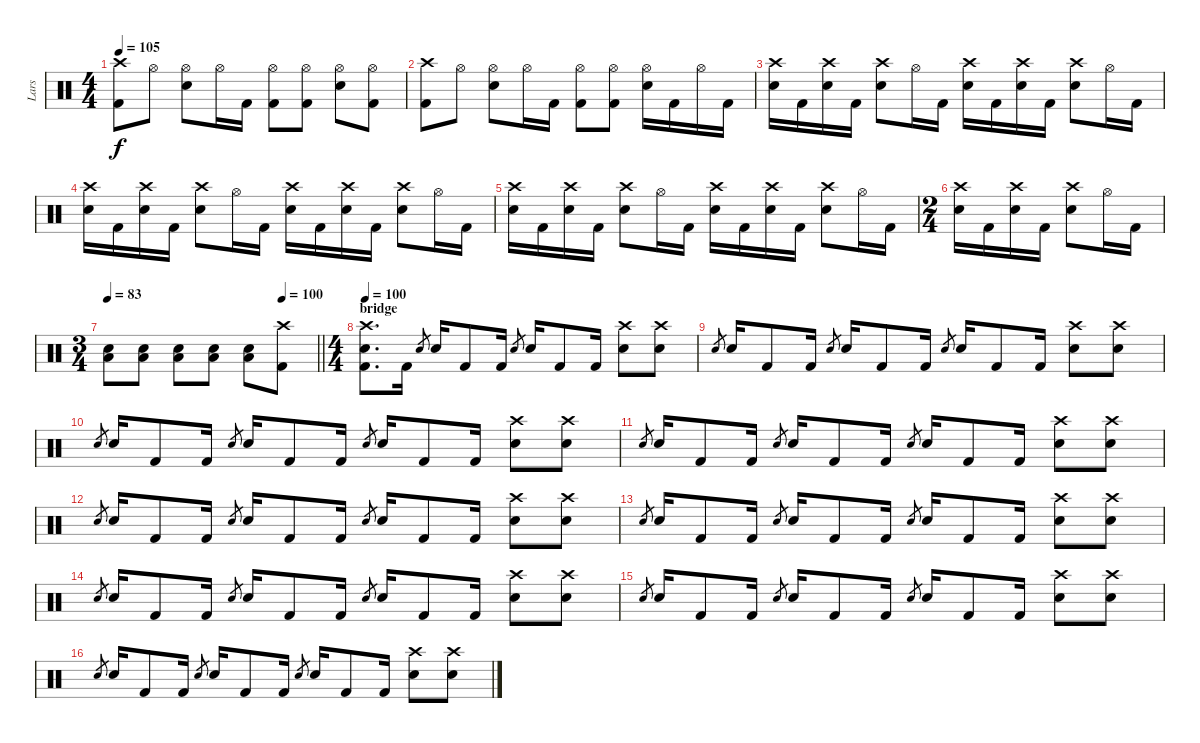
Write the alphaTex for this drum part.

\track ("Lars" "Lars") {instrument percussion}
\staff {score}
\articulation defaults
\ts (4 4)
\tempo 105
\clef neutral
\ks c
("Crash high (hit)" "Kick (hit) 2").8{dy f} "Hi-Hat (open)".8 ("Hi-Hat (open)" "Electric Snare (hit)").8 "Hi-Hat (open)".16 "Kick (hit) 2".16 ("Hi-Hat (open)" "Kick (hit) 2").8 ("Hi-Hat (open)" "Kick (hit) 2").8 ("Hi-Hat (open)" "Electric Snare (hit)").8 ("Hi-Hat (open)" "Kick (hit) 2").8 |
("Crash high (hit)" "Kick (hit) 2").8 "Hi-Hat (open)".8 ("Hi-Hat (open)" "Electric Snare (hit)").8 "Hi-Hat (open)".16 "Kick (hit) 2".16 ("Hi-Hat (open)" "Kick (hit) 2").8 ("Hi-Hat (open)" "Kick (hit) 2").8 ("Hi-Hat (open)" "Electric Snare (hit)").16 "Kick (hit) 2".16 "Hi-Hat (open)".16 "Kick (hit) 2".16 |
("Crash high (hit)" "Electric Snare (hit)").16 "Kick (hit) 2".16 ("Crash high (hit)" "Electric Snare (hit)").16 "Kick (hit) 2".16 ("Crash high (hit)" "Electric Snare (hit)").8 "Hi-Hat (open)".16 "Kick (hit) 2".16 ("Crash high (hit)" "Electric Snare (hit)").16 "Kick (hit) 2".16 ("Crash high (hit)" "Electric Snare (hit)").16 "Kick (hit) 2".16 ("Crash high (hit)" "Electric Snare (hit)").8 "Hi-Hat (open)".16 "Kick (hit) 2".16 |
("Crash high (hit)" "Electric Snare (hit)").16 "Kick (hit) 2".16 ("Crash high (hit)" "Electric Snare (hit)").16 "Kick (hit) 2".16 ("Crash high (hit)" "Electric Snare (hit)").8 "Hi-Hat (open)".16 "Kick (hit) 2".16 ("Crash high (hit)" "Electric Snare (hit)").16 "Kick (hit) 2".16 ("Crash high (hit)" "Electric Snare (hit)").16 "Kick (hit) 2".16 ("Crash high (hit)" "Electric Snare (hit)").8 "Hi-Hat (open)".16 "Kick (hit) 2".16 |
("Crash high (hit)" "Electric Snare (hit)").16 "Kick (hit) 2".16 ("Crash high (hit)" "Electric Snare (hit)").16 "Kick (hit) 2".16 ("Crash high (hit)" "Electric Snare (hit)").8 "Hi-Hat (open)".16 "Kick (hit) 2".16 ("Crash high (hit)" "Electric Snare (hit)").16 "Kick (hit) 2".16 ("Crash high (hit)" "Electric Snare (hit)").16 "Kick (hit) 2".16 ("Crash high (hit)" "Electric Snare (hit)").8 "Hi-Hat (open)".16 "Kick (hit) 2".16 |
\ts (2 4)
("Crash high (hit)" "Electric Snare (hit)").16 "Kick (hit) 2".16 ("Crash high (hit)" "Electric Snare (hit)").16 "Kick (hit) 2".16 ("Crash high (hit)" "Electric Snare (hit)").8 "Hi-Hat (open)".16 "Kick (hit) 2".16 |
\ts (3 4)
\tempo 83
\tempo (100 0.8333333333333334)
\barLineRight lightlight
("Low Floor Tom (hit)" "Electric Snare (hit)").8 ("Low Floor Tom (hit)" "Electric Snare (hit)").8 ("Low Floor Tom (hit)" "Electric Snare (hit)").8 ("Low Floor Tom (hit)" "Electric Snare (hit)").8 ("Low Floor Tom (hit)" "Electric Snare (hit)").8 ("Crash high (hit)" "Kick (hit) 2").8 |
\ts (4 4)
\section ("" "bridge")
\tempo 100
("Crash high (hit)" "Electric Snare (hit)" "Kick (hit) 2").8{d} "Kick (hit) 2".16 "Electric Snare (hit)".8{gr} "Electric Snare (hit)".16 "Kick (hit) 2".8 "Kick (hit) 2".16 "Electric Snare (hit)".8{gr} "Electric Snare (hit)".16 "Kick (hit) 2".8 "Kick (hit) 2".16 ("Crash high (hit)" "Electric Snare (hit)").8 ("Crash high (hit)" "Electric Snare (hit)").8 |
"Electric Snare (hit)".8{gr} "Electric Snare (hit)".16 "Kick (hit) 2".8 "Kick (hit) 2".16 "Electric Snare (hit)".8{gr} "Electric Snare (hit)".16 "Kick (hit) 2".8 "Kick (hit) 2".16 "Electric Snare (hit)".8{gr} "Electric Snare (hit)".16 "Kick (hit) 2".8 "Kick (hit) 2".16 ("Crash high (hit)" "Electric Snare (hit)").8 ("Crash high (hit)" "Electric Snare (hit)").8 |
"Electric Snare (hit)".8{gr} "Electric Snare (hit)".16 "Kick (hit) 2".8 "Kick (hit) 2".16 "Electric Snare (hit)".8{gr} "Electric Snare (hit)".16 "Kick (hit) 2".8 "Kick (hit) 2".16 "Electric Snare (hit)".8{gr} "Electric Snare (hit)".16 "Kick (hit) 2".8 "Kick (hit) 2".16 ("Crash high (hit)" "Electric Snare (hit)").8 ("Crash high (hit)" "Electric Snare (hit)").8 |
"Electric Snare (hit)".8{gr} "Electric Snare (hit)".16 "Kick (hit) 2".8 "Kick (hit) 2".16 "Electric Snare (hit)".8{gr} "Electric Snare (hit)".16 "Kick (hit) 2".8 "Kick (hit) 2".16 "Electric Snare (hit)".8{gr} "Electric Snare (hit)".16 "Kick (hit) 2".8 "Kick (hit) 2".16 ("Crash high (hit)" "Electric Snare (hit)").8 ("Crash high (hit)" "Electric Snare (hit)").8 |
"Electric Snare (hit)".8{gr} "Electric Snare (hit)".16 "Kick (hit) 2".8 "Kick (hit) 2".16 "Electric Snare (hit)".8{gr} "Electric Snare (hit)".16 "Kick (hit) 2".8 "Kick (hit) 2".16 "Electric Snare (hit)".8{gr} "Electric Snare (hit)".16 "Kick (hit) 2".8 "Kick (hit) 2".16 ("Crash high (hit)" "Electric Snare (hit)").8 ("Crash high (hit)" "Electric Snare (hit)").8 |
"Electric Snare (hit)".8{gr} "Electric Snare (hit)".16 "Kick (hit) 2".8 "Kick (hit) 2".16 "Electric Snare (hit)".8{gr} "Electric Snare (hit)".16 "Kick (hit) 2".8 "Kick (hit) 2".16 "Electric Snare (hit)".8{gr} "Electric Snare (hit)".16 "Kick (hit) 2".8 "Kick (hit) 2".16 ("Crash high (hit)" "Electric Snare (hit)").8 ("Crash high (hit)" "Electric Snare (hit)").8 |
"Electric Snare (hit)".8{gr} "Electric Snare (hit)".16 "Kick (hit) 2".8 "Kick (hit) 2".16 "Electric Snare (hit)".8{gr} "Electric Snare (hit)".16 "Kick (hit) 2".8 "Kick (hit) 2".16 "Electric Snare (hit)".8{gr} "Electric Snare (hit)".16 "Kick (hit) 2".8 "Kick (hit) 2".16 ("Crash high (hit)" "Electric Snare (hit)").8 ("Crash high (hit)" "Electric Snare (hit)").8 |
"Electric Snare (hit)".8{gr} "Electric Snare (hit)".16 "Kick (hit) 2".8 "Kick (hit) 2".16 "Electric Snare (hit)".8{gr} "Electric Snare (hit)".16 "Kick (hit) 2".8 "Kick (hit) 2".16 "Electric Snare (hit)".8{gr} "Electric Snare (hit)".16 "Kick (hit) 2".8 "Kick (hit) 2".16 ("Crash high (hit)" "Electric Snare (hit)").8 ("Crash high (hit)" "Electric Snare (hit)").8 |
"Electric Snare (hit)".8{gr} "Electric Snare (hit)".16 "Kick (hit) 2".8 "Kick (hit) 2".16 "Electric Snare (hit)".8{gr} "Electric Snare (hit)".16 "Kick (hit) 2".8 "Kick (hit) 2".16 "Electric Snare (hit)".8{gr} "Electric Snare (hit)".16 "Kick (hit) 2".8 "Kick (hit) 2".16 ("Crash high (hit)" "Electric Snare (hit)").8 ("Crash high (hit)" "Electric Snare (hit)").8
